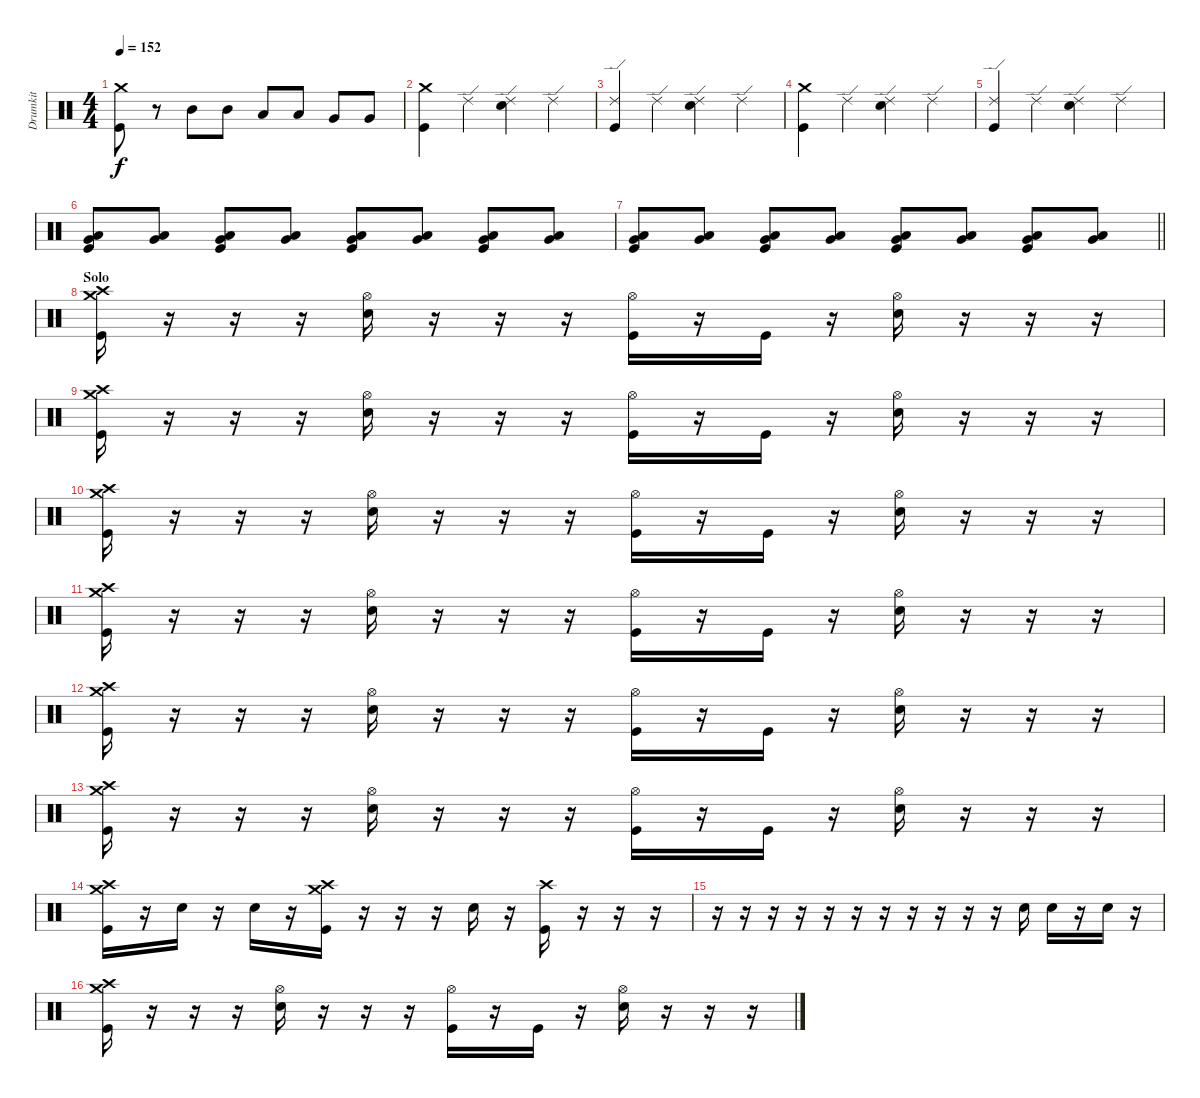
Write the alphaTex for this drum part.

\track ("Drumkit" "Drumkit") {instrument percussion}
\staff {score}
\articulation defaults
\ts (4 4)
\tempo 152
\clef neutral
\ks c
("Crash medium (hit)" "Kick (hit)").8{dy f} r.8 "Mid Tom (hit)".8 "Mid Tom (hit)".8 "Low Tom (hit)".8 "Low Tom (hit)".8 "Very Low Tom (hit)".8 "Very Low Tom (hit)".8 |
("Crash medium (hit)" "Kick (hit)").4 "Ride (edge) 2".4 ("Ride (edge) 2" "Snare (hit) 2").4 "Ride (edge) 2".4 |
("Ride (edge) 2" "Kick (hit)").4 "Ride (edge) 2".4 ("Ride (edge) 2" "Snare (hit) 2").4 "Ride (edge) 2".4 |
("Crash medium (hit)" "Kick (hit)").4 "Ride (edge) 2".4 ("Ride (edge) 2" "Snare (hit) 2").4 "Ride (edge) 2".4 |
("Ride (edge) 2" "Kick (hit)").4 "Ride (edge) 2".4 ("Ride (edge) 2" "Snare (hit) 2").4 "Ride (edge) 2".4 |
("Low Tom (hit)" "Very Low Tom (hit)" "Kick (hit)").8 ("Low Tom (hit)" "Very Low Tom (hit)").8 ("Low Tom (hit)" "Very Low Tom (hit)" "Kick (hit)").8 ("Low Tom (hit)" "Very Low Tom (hit)").8 ("Low Tom (hit)" "Very Low Tom (hit)" "Kick (hit)").8 ("Low Tom (hit)" "Very Low Tom (hit)").8 ("Low Tom (hit)" "Very Low Tom (hit)" "Kick (hit)").8 ("Low Tom (hit)" "Very Low Tom (hit)").8 |
\barLineRight lightlight
("Low Tom (hit)" "Very Low Tom (hit)" "Kick (hit)").8 ("Low Tom (hit)" "Very Low Tom (hit)").8 ("Low Tom (hit)" "Very Low Tom (hit)" "Kick (hit)").8 ("Low Tom (hit)" "Very Low Tom (hit)").8 ("Low Tom (hit)" "Very Low Tom (hit)" "Kick (hit)").8 ("Low Tom (hit)" "Very Low Tom (hit)").8 ("Low Tom (hit)" "Very Low Tom (hit)" "Kick (hit)").8 ("Low Tom (hit)" "Very Low Tom (hit)").8 |
\section ("" "Solo")
("Crash high (hit)" "Crash medium (hit)" "Kick (hit)").16 r.16 r.16 r.16 ("Hi-Hat (open)" "Snare (hit) 2").16 r.16 r.16 r.16 ("Hi-Hat (open)" "Kick (hit)").16 r.16 "Kick (hit)".16 r.16 ("Hi-Hat (open)" "Snare (hit) 2").16 r.16 r.16 r.16 |
("Crash high (hit)" "Crash medium (hit)" "Kick (hit)").16 r.16 r.16 r.16 ("Hi-Hat (open)" "Snare (hit) 2").16 r.16 r.16 r.16 ("Hi-Hat (open)" "Kick (hit)").16 r.16 "Kick (hit)".16 r.16 ("Hi-Hat (open)" "Snare (hit) 2").16 r.16 r.16 r.16 |
("Crash high (hit)" "Crash medium (hit)" "Kick (hit)").16 r.16 r.16 r.16 ("Hi-Hat (open)" "Snare (hit) 2").16 r.16 r.16 r.16 ("Hi-Hat (open)" "Kick (hit)").16 r.16 "Kick (hit)".16 r.16 ("Hi-Hat (open)" "Snare (hit) 2").16 r.16 r.16 r.16 |
("Crash high (hit)" "Crash medium (hit)" "Kick (hit)").16 r.16 r.16 r.16 ("Hi-Hat (open)" "Snare (hit) 2").16 r.16 r.16 r.16 ("Hi-Hat (open)" "Kick (hit)").16 r.16 "Kick (hit)".16 r.16 ("Hi-Hat (open)" "Snare (hit) 2").16 r.16 r.16 r.16 |
("Crash high (hit)" "Crash medium (hit)" "Kick (hit)").16 r.16 r.16 r.16 ("Hi-Hat (open)" "Snare (hit) 2").16 r.16 r.16 r.16 ("Hi-Hat (open)" "Kick (hit)").16 r.16 "Kick (hit)".16 r.16 ("Hi-Hat (open)" "Snare (hit) 2").16 r.16 r.16 r.16 |
("Crash high (hit)" "Crash medium (hit)" "Kick (hit)").16 r.16 r.16 r.16 ("Hi-Hat (open)" "Snare (hit) 2").16 r.16 r.16 r.16 ("Hi-Hat (open)" "Kick (hit)").16 r.16 "Kick (hit)".16 r.16 ("Hi-Hat (open)" "Snare (hit) 2").16 r.16 r.16 r.16 |
("Crash high (hit)" "Crash medium (hit)" "Kick (hit)").16 r.16 "Snare (hit) 2".16 r.16 "Snare (hit) 2".16 r.16 ("Crash high (hit)" "Crash medium (hit)" "Kick (hit)").16 r.16 r.16 r.16 "Snare (hit) 2".16 r.16 ("Crash high (hit)" "Kick (hit)").16 r.16 r.16 r.16 |
r.16 r.16 r.16 r.16 r.16 r.16 r.16 r.16 r.16 r.16 r.16 "Snare (hit) 2".16 "Snare (hit) 2".16 r.16 "Snare (hit) 2".16 r.16 |
("Crash high (hit)" "Crash medium (hit)" "Kick (hit)").16 r.16 r.16 r.16 ("Hi-Hat (open)" "Snare (hit) 2").16 r.16 r.16 r.16 ("Hi-Hat (open)" "Kick (hit)").16 r.16 "Kick (hit)".16 r.16 ("Hi-Hat (open)" "Snare (hit) 2").16 r.16 r.16 r.16
